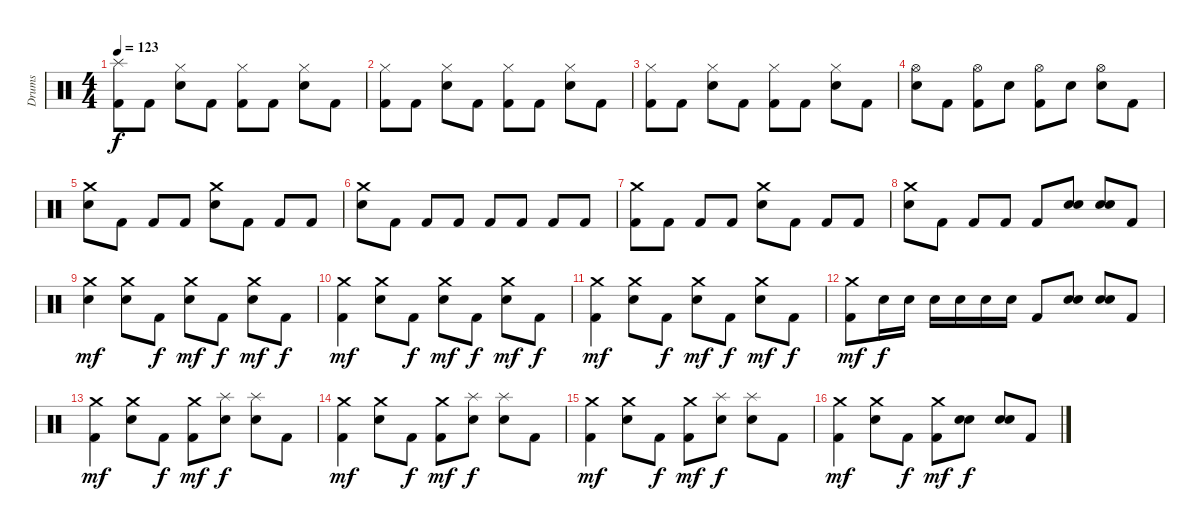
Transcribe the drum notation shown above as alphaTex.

\track ("Drums" "Drums") {instrument percussion}
\staff {score}
\articulation defaults
\ts (4 4)
\tempo 123
\clef neutral
\ks c
("Splash (hit)" "Kick (hit) 2").8{dy f} "Kick (hit) 2".8 ("Hi-Hat (closed)" "Electric Snare (hit)").8 "Kick (hit) 2".8 ("Hi-Hat (closed)" "Kick (hit) 2").8 "Kick (hit) 2".8 ("Hi-Hat (closed)" "Electric Snare (hit)").8 "Kick (hit) 2".8 |
("Hi-Hat (closed)" "Kick (hit) 2").8 "Kick (hit) 2".8 ("Hi-Hat (closed)" "Electric Snare (hit)").8 "Kick (hit) 2".8 ("Hi-Hat (closed)" "Kick (hit) 2").8 "Kick (hit) 2".8 ("Hi-Hat (closed)" "Electric Snare (hit)").8 "Kick (hit) 2".8 |
("Hi-Hat (closed)" "Kick (hit) 2").8 "Kick (hit) 2".8 ("Hi-Hat (closed)" "Electric Snare (hit)").8 "Kick (hit) 2".8 ("Hi-Hat (closed)" "Kick (hit) 2").8 "Kick (hit) 2".8 ("Hi-Hat (closed)" "Electric Snare (hit)").8 "Kick (hit) 2".8 |
("Hi-Hat (open)" "Electric Snare (hit)").8 "Kick (hit) 2".8 ("Hi-Hat (open)" "Kick (hit) 2").8 "Electric Snare (hit)".8 ("Hi-Hat (open)" "Kick (hit) 2").8 "Electric Snare (hit)".8 ("Hi-Hat (open)" "Electric Snare (hit)").8 "Kick (hit) 2".8 |
("Crash medium (hit)" "Electric Snare (hit)").8 "Kick (hit) 2".8 "Kick (hit) 2".8 "Kick (hit) 2".8 ("Crash medium (hit)" "Electric Snare (hit)").8 "Kick (hit) 2".8 "Kick (hit) 2".8 "Kick (hit) 2".8 |
("Crash medium (hit)" "Electric Snare (hit)").8 "Kick (hit) 2".8 "Kick (hit) 2".8 "Kick (hit) 2".8 "Kick (hit) 2".8 "Kick (hit) 2".8 "Kick (hit) 2".8 "Kick (hit) 2".8 |
("Crash medium (hit)" "Kick (hit) 2").8 "Kick (hit) 2".8 "Kick (hit) 2".8 "Kick (hit) 2".8 ("Crash medium (hit)" "Electric Snare (hit)").8 "Kick (hit) 2".8 "Kick (hit) 2".8 "Kick (hit) 2".8 |
("Crash medium (hit)" "Electric Snare (hit)").8 "Kick (hit) 2".8 "Kick (hit) 2".8 "Kick (hit) 2".8 "Kick (hit) 2".8 ("Electric Snare (hit)" "Electric Snare (hit)").8 ("Electric Snare (hit)" "Electric Snare (hit)").8 "Kick (hit) 2".8 |
("Crash medium (hit)" "Electric Snare (hit)").4{dy mf} ("Crash medium (hit)" "Electric Snare (hit)").8 "Kick (hit) 2".8{dy f} ("Crash medium (hit)" "Electric Snare (hit)").8{dy mf} "Kick (hit) 2".8{dy f} ("Crash medium (hit)" "Electric Snare (hit)").8{dy mf} "Kick (hit) 2".8{dy f} |
("Crash medium (hit)" "Kick (hit) 2").4{dy mf} ("Crash medium (hit)" "Electric Snare (hit)").8 "Kick (hit) 2".8{dy f} ("Crash medium (hit)" "Electric Snare (hit)").8{dy mf} "Kick (hit) 2".8{dy f} ("Crash medium (hit)" "Electric Snare (hit)").8{dy mf} "Kick (hit) 2".8{dy f} |
("Crash medium (hit)" "Kick (hit) 2").4{dy mf} ("Crash medium (hit)" "Electric Snare (hit)").8 "Kick (hit) 2".8{dy f} ("Crash medium (hit)" "Electric Snare (hit)").8{dy mf} "Kick (hit) 2".8{dy f} ("Crash medium (hit)" "Electric Snare (hit)").8{dy mf} "Kick (hit) 2".8{dy f} |
("Crash medium (hit)" "Kick (hit) 2").8{dy mf} "Electric Snare (hit)".16{dy f} "Electric Snare (hit)".16 "Electric Snare (hit)".16 "Electric Snare (hit)".16 "Electric Snare (hit)".16 "Electric Snare (hit)".16 "Kick (hit) 2".8 ("Electric Snare (hit)" "Electric Snare (hit)").8 ("Electric Snare (hit)" "Electric Snare (hit)").8 "Kick (hit) 2".8 |
("Crash medium (hit)" "Kick (hit) 2").4{dy mf} ("Crash medium (hit)" "Electric Snare (hit)").8 "Kick (hit) 2".8{dy f} ("Crash medium (hit)" "Kick (hit) 2").8{dy mf} ("Splash (hit)" "Electric Snare (hit)").8{dy f} ("Splash (hit)" "Electric Snare (hit)").8 "Kick (hit) 2".8 |
("Crash medium (hit)" "Kick (hit) 2").4{dy mf} ("Crash medium (hit)" "Electric Snare (hit)").8 "Kick (hit) 2".8{dy f} ("Crash medium (hit)" "Kick (hit) 2").8{dy mf} ("Splash (hit)" "Electric Snare (hit)").8{dy f} ("Splash (hit)" "Electric Snare (hit)").8 "Kick (hit) 2".8 |
("Crash medium (hit)" "Kick (hit) 2").4{dy mf} ("Crash medium (hit)" "Electric Snare (hit)").8 "Kick (hit) 2".8{dy f} ("Crash medium (hit)" "Kick (hit) 2").8{dy mf} ("Splash (hit)" "Electric Snare (hit)").8{dy f} ("Splash (hit)" "Electric Snare (hit)").8 "Kick (hit) 2".8 |
("Crash medium (hit)" "Kick (hit) 2").4{dy mf} ("Crash medium (hit)" "Electric Snare (hit)").8 "Kick (hit) 2".8{dy f} ("Crash medium (hit)" "Kick (hit) 2").8{dy mf} ("Electric Snare (hit)" "Electric Snare (hit)").8{dy f} ("Electric Snare (hit)" "Electric Snare (hit)").8 "Kick (hit) 2".8
